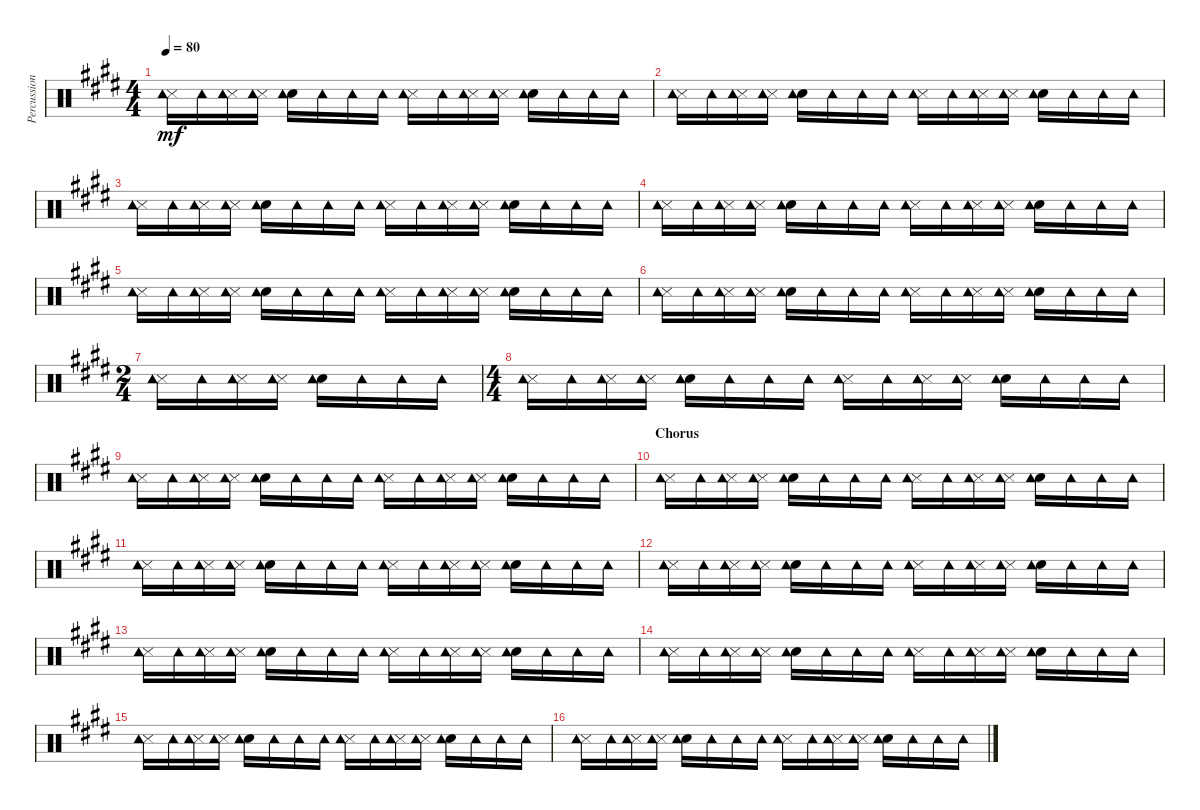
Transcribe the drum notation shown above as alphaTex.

\track ("Percussion" "Percussion") {instrument percussion}
\staff {score}
\articulation defaults
\ts (4 4)
\tempo 80
\clef neutral
\ks c#minor
("Metronome (hit)" "Tambourine (hit)").16{dy mf} "Tambourine (hit)".16 ("Metronome (hit)" "Tambourine (hit)").16 ("Metronome (hit)" "Tambourine (hit)").16 ("Snare (hit) 2" "Tambourine (hit)").16 "Tambourine (hit)".16 "Tambourine (hit)".16 "Tambourine (hit)".16 ("Metronome (hit)" "Tambourine (hit)").16 "Tambourine (hit)".16 ("Metronome (hit)" "Tambourine (hit)").16 ("Metronome (hit)" "Tambourine (hit)").16 ("Snare (hit) 2" "Tambourine (hit)").16 "Tambourine (hit)".16 "Tambourine (hit)".16 "Tambourine (hit)".16 |
("Metronome (hit)" "Tambourine (hit)").16 "Tambourine (hit)".16 ("Metronome (hit)" "Tambourine (hit)").16 ("Metronome (hit)" "Tambourine (hit)").16 ("Snare (hit) 2" "Tambourine (hit)").16 "Tambourine (hit)".16 "Tambourine (hit)".16 "Tambourine (hit)".16 ("Metronome (hit)" "Tambourine (hit)").16 "Tambourine (hit)".16 ("Metronome (hit)" "Tambourine (hit)").16 ("Metronome (hit)" "Tambourine (hit)").16 ("Snare (hit) 2" "Tambourine (hit)").16 "Tambourine (hit)".16 "Tambourine (hit)".16 "Tambourine (hit)".16 |
("Metronome (hit)" "Tambourine (hit)").16 "Tambourine (hit)".16 ("Metronome (hit)" "Tambourine (hit)").16 ("Metronome (hit)" "Tambourine (hit)").16 ("Snare (hit) 2" "Tambourine (hit)").16 "Tambourine (hit)".16 "Tambourine (hit)".16 "Tambourine (hit)".16 ("Metronome (hit)" "Tambourine (hit)").16 "Tambourine (hit)".16 ("Metronome (hit)" "Tambourine (hit)").16 ("Metronome (hit)" "Tambourine (hit)").16 ("Snare (hit) 2" "Tambourine (hit)").16 "Tambourine (hit)".16 "Tambourine (hit)".16 "Tambourine (hit)".16 |
("Metronome (hit)" "Tambourine (hit)").16 "Tambourine (hit)".16 ("Metronome (hit)" "Tambourine (hit)").16 ("Metronome (hit)" "Tambourine (hit)").16 ("Snare (hit) 2" "Tambourine (hit)").16 "Tambourine (hit)".16 "Tambourine (hit)".16 "Tambourine (hit)".16 ("Metronome (hit)" "Tambourine (hit)").16 "Tambourine (hit)".16 ("Metronome (hit)" "Tambourine (hit)").16 ("Metronome (hit)" "Tambourine (hit)").16 ("Snare (hit) 2" "Tambourine (hit)").16 "Tambourine (hit)".16 "Tambourine (hit)".16 "Tambourine (hit)".16 |
("Metronome (hit)" "Tambourine (hit)").16 "Tambourine (hit)".16 ("Metronome (hit)" "Tambourine (hit)").16 ("Metronome (hit)" "Tambourine (hit)").16 ("Snare (hit) 2" "Tambourine (hit)").16 "Tambourine (hit)".16 "Tambourine (hit)".16 "Tambourine (hit)".16 ("Metronome (hit)" "Tambourine (hit)").16 "Tambourine (hit)".16 ("Metronome (hit)" "Tambourine (hit)").16 ("Metronome (hit)" "Tambourine (hit)").16 ("Snare (hit) 2" "Tambourine (hit)").16 "Tambourine (hit)".16 "Tambourine (hit)".16 "Tambourine (hit)".16 |
("Metronome (hit)" "Tambourine (hit)").16 "Tambourine (hit)".16 ("Metronome (hit)" "Tambourine (hit)").16 ("Metronome (hit)" "Tambourine (hit)").16 ("Snare (hit) 2" "Tambourine (hit)").16 "Tambourine (hit)".16 "Tambourine (hit)".16 "Tambourine (hit)".16 ("Metronome (hit)" "Tambourine (hit)").16 "Tambourine (hit)".16 ("Metronome (hit)" "Tambourine (hit)").16 ("Metronome (hit)" "Tambourine (hit)").16 ("Snare (hit) 2" "Tambourine (hit)").16 "Tambourine (hit)".16 "Tambourine (hit)".16 "Tambourine (hit)".16 |
\ts (2 4)
("Metronome (hit)" "Tambourine (hit)").16 "Tambourine (hit)".16 ("Metronome (hit)" "Tambourine (hit)").16 ("Metronome (hit)" "Tambourine (hit)").16 ("Snare (hit) 2" "Tambourine (hit)").16 "Tambourine (hit)".16 "Tambourine (hit)".16 "Tambourine (hit)".16 |
\ts (4 4)
("Metronome (hit)" "Tambourine (hit)").16 "Tambourine (hit)".16 ("Metronome (hit)" "Tambourine (hit)").16 ("Metronome (hit)" "Tambourine (hit)").16 ("Snare (hit) 2" "Tambourine (hit)").16 "Tambourine (hit)".16 "Tambourine (hit)".16 "Tambourine (hit)".16 ("Metronome (hit)" "Tambourine (hit)").16 "Tambourine (hit)".16 ("Metronome (hit)" "Tambourine (hit)").16 ("Metronome (hit)" "Tambourine (hit)").16 ("Snare (hit) 2" "Tambourine (hit)").16 "Tambourine (hit)".16 "Tambourine (hit)".16 "Tambourine (hit)".16 |
("Metronome (hit)" "Tambourine (hit)").16 "Tambourine (hit)".16 ("Metronome (hit)" "Tambourine (hit)").16 ("Metronome (hit)" "Tambourine (hit)").16 ("Snare (hit) 2" "Tambourine (hit)").16 "Tambourine (hit)".16 "Tambourine (hit)".16 "Tambourine (hit)".16 ("Metronome (hit)" "Tambourine (hit)").16 "Tambourine (hit)".16 ("Metronome (hit)" "Tambourine (hit)").16 ("Metronome (hit)" "Tambourine (hit)").16 ("Snare (hit) 2" "Tambourine (hit)").16 "Tambourine (hit)".16 "Tambourine (hit)".16 "Tambourine (hit)".16 |
\section ("" "Chorus")
("Metronome (hit)" "Tambourine (hit)").16 "Tambourine (hit)".16 ("Metronome (hit)" "Tambourine (hit)").16 ("Metronome (hit)" "Tambourine (hit)").16 ("Snare (hit) 2" "Tambourine (hit)").16 "Tambourine (hit)".16 "Tambourine (hit)".16 "Tambourine (hit)".16 ("Metronome (hit)" "Tambourine (hit)").16 "Tambourine (hit)".16 ("Metronome (hit)" "Tambourine (hit)").16 ("Metronome (hit)" "Tambourine (hit)").16 ("Snare (hit) 2" "Tambourine (hit)").16 "Tambourine (hit)".16 "Tambourine (hit)".16 "Tambourine (hit)".16 |
("Metronome (hit)" "Tambourine (hit)").16 "Tambourine (hit)".16 ("Metronome (hit)" "Tambourine (hit)").16 ("Metronome (hit)" "Tambourine (hit)").16 ("Snare (hit) 2" "Tambourine (hit)").16 "Tambourine (hit)".16 "Tambourine (hit)".16 "Tambourine (hit)".16 ("Metronome (hit)" "Tambourine (hit)").16 "Tambourine (hit)".16 ("Metronome (hit)" "Tambourine (hit)").16 ("Metronome (hit)" "Tambourine (hit)").16 ("Snare (hit) 2" "Tambourine (hit)").16 "Tambourine (hit)".16 "Tambourine (hit)".16 "Tambourine (hit)".16 |
("Metronome (hit)" "Tambourine (hit)").16 "Tambourine (hit)".16 ("Metronome (hit)" "Tambourine (hit)").16 ("Metronome (hit)" "Tambourine (hit)").16 ("Snare (hit) 2" "Tambourine (hit)").16 "Tambourine (hit)".16 "Tambourine (hit)".16 "Tambourine (hit)".16 ("Metronome (hit)" "Tambourine (hit)").16 "Tambourine (hit)".16 ("Metronome (hit)" "Tambourine (hit)").16 ("Metronome (hit)" "Tambourine (hit)").16 ("Snare (hit) 2" "Tambourine (hit)").16 "Tambourine (hit)".16 "Tambourine (hit)".16 "Tambourine (hit)".16 |
("Metronome (hit)" "Tambourine (hit)").16 "Tambourine (hit)".16 ("Metronome (hit)" "Tambourine (hit)").16 ("Metronome (hit)" "Tambourine (hit)").16 ("Snare (hit) 2" "Tambourine (hit)").16 "Tambourine (hit)".16 "Tambourine (hit)".16 "Tambourine (hit)".16 ("Metronome (hit)" "Tambourine (hit)").16 "Tambourine (hit)".16 ("Metronome (hit)" "Tambourine (hit)").16 ("Metronome (hit)" "Tambourine (hit)").16 ("Snare (hit) 2" "Tambourine (hit)").16 "Tambourine (hit)".16 "Tambourine (hit)".16 "Tambourine (hit)".16 |
("Metronome (hit)" "Tambourine (hit)").16 "Tambourine (hit)".16 ("Metronome (hit)" "Tambourine (hit)").16 ("Metronome (hit)" "Tambourine (hit)").16 ("Snare (hit) 2" "Tambourine (hit)").16 "Tambourine (hit)".16 "Tambourine (hit)".16 "Tambourine (hit)".16 ("Metronome (hit)" "Tambourine (hit)").16 "Tambourine (hit)".16 ("Metronome (hit)" "Tambourine (hit)").16 ("Metronome (hit)" "Tambourine (hit)").16 ("Snare (hit) 2" "Tambourine (hit)").16 "Tambourine (hit)".16 "Tambourine (hit)".16 "Tambourine (hit)".16 |
("Metronome (hit)" "Tambourine (hit)").16 "Tambourine (hit)".16 ("Metronome (hit)" "Tambourine (hit)").16 ("Metronome (hit)" "Tambourine (hit)").16 ("Snare (hit) 2" "Tambourine (hit)").16 "Tambourine (hit)".16 "Tambourine (hit)".16 "Tambourine (hit)".16 ("Metronome (hit)" "Tambourine (hit)").16 "Tambourine (hit)".16 ("Metronome (hit)" "Tambourine (hit)").16 ("Metronome (hit)" "Tambourine (hit)").16 ("Snare (hit) 2" "Tambourine (hit)").16 "Tambourine (hit)".16 "Tambourine (hit)".16 "Tambourine (hit)".16 |
("Metronome (hit)" "Tambourine (hit)").16 "Tambourine (hit)".16 ("Metronome (hit)" "Tambourine (hit)").16 ("Metronome (hit)" "Tambourine (hit)").16 ("Snare (hit) 2" "Tambourine (hit)").16 "Tambourine (hit)".16 "Tambourine (hit)".16 "Tambourine (hit)".16 ("Metronome (hit)" "Tambourine (hit)").16 "Tambourine (hit)".16 ("Metronome (hit)" "Tambourine (hit)").16 ("Metronome (hit)" "Tambourine (hit)").16 ("Snare (hit) 2" "Tambourine (hit)").16 "Tambourine (hit)".16 "Tambourine (hit)".16 "Tambourine (hit)".16
